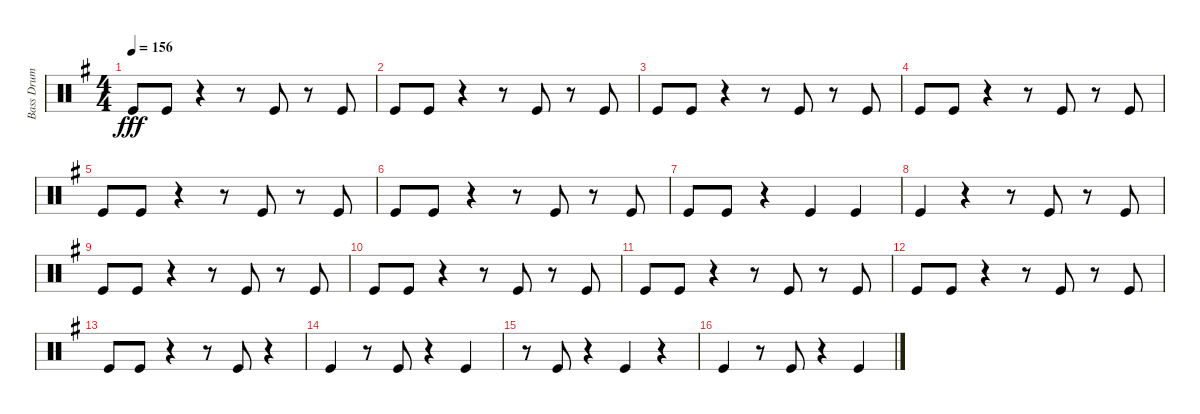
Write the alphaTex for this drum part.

\track ("Bass Drum" "Bass Drum") {instrument percussion}
\staff {score}
\articulation defaults
\ts (4 4)
\tempo 156
\clef neutral
\ks g "Kick (hit)".8{dy fff} "Kick (hit)".8
r.4 r.8 "Kick (hit)".8 r.8 "Kick (hit)".8 |
"Kick (hit)".8 "Kick (hit)".8 r.4 r.8 "Kick (hit)".8 r.8 "Kick (hit)".8 |
"Kick (hit)".8 "Kick (hit)".8 r.4 r.8 "Kick (hit)".8 r.8 "Kick (hit)".8 |
"Kick (hit)".8 "Kick (hit)".8 r.4 r.8 "Kick (hit)".8 r.8 "Kick (hit)".8 |
"Kick (hit)".8 "Kick (hit)".8 r.4 r.8 "Kick (hit)".8 r.8 "Kick (hit)".8 |
"Kick (hit)".8 "Kick (hit)".8 r.4 r.8 "Kick (hit)".8 r.8 "Kick (hit)".8 |
"Kick (hit)".8 "Kick (hit)".8 r.4 "Kick (hit)".4 "Kick (hit)".4 |
"Kick (hit)".4 r.4 r.8 "Kick (hit)".8 r.8 "Kick (hit)".8 |
"Kick (hit)".8 "Kick (hit)".8 r.4 r.8 "Kick (hit)".8 r.8 "Kick (hit)".8 |
"Kick (hit)".8 "Kick (hit)".8 r.4 r.8 "Kick (hit)".8 r.8 "Kick (hit)".8 |
"Kick (hit)".8 "Kick (hit)".8 r.4 r.8 "Kick (hit)".8 r.8 "Kick (hit)".8 |
"Kick (hit)".8 "Kick (hit)".8 r.4 r.8 "Kick (hit)".8 r.8 "Kick (hit)".8 |
"Kick (hit)".8 "Kick (hit)".8 r.4 r.8 "Kick (hit)".8 r.4 |
"Kick (hit)".4 r.8 "Kick (hit)".8 r.4 "Kick (hit)".4 |
r.8 "Kick (hit)".8 r.4 "Kick (hit)".4 r.4 |
"Kick (hit)".4 r.8 "Kick (hit)".8 r.4 "Kick (hit)".4
